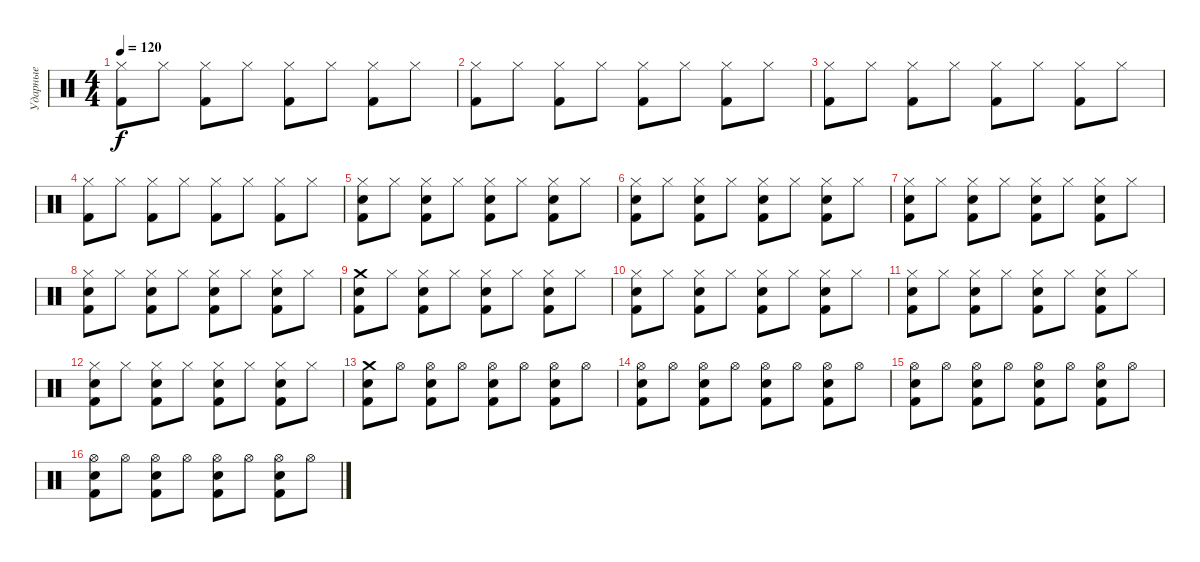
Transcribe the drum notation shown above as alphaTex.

\track ("Ударные" "Ударные") {instrument percussion}
\staff {score}
\articulation defaults
\ts (4 4)
\tempo 120
\clef neutral
\ks c
("Kick (hit) 2" "Hi-Hat (closed)").8{dy f} "Hi-Hat (closed)".8 ("Kick (hit) 2" "Hi-Hat (closed)").8 "Hi-Hat (closed)".8 ("Kick (hit) 2" "Hi-Hat (closed)").8 "Hi-Hat (closed)".8 ("Kick (hit) 2" "Hi-Hat (closed)").8 "Hi-Hat (closed)".8 |
("Kick (hit) 2" "Hi-Hat (closed)").8 "Hi-Hat (closed)".8 ("Kick (hit) 2" "Hi-Hat (closed)").8 "Hi-Hat (closed)".8 ("Kick (hit) 2" "Hi-Hat (closed)").8 "Hi-Hat (closed)".8 ("Kick (hit) 2" "Hi-Hat (closed)").8 "Hi-Hat (closed)".8 |
("Kick (hit) 2" "Hi-Hat (closed)").8 "Hi-Hat (closed)".8 ("Kick (hit) 2" "Hi-Hat (closed)").8 "Hi-Hat (closed)".8 ("Kick (hit) 2" "Hi-Hat (closed)").8 "Hi-Hat (closed)".8 ("Kick (hit) 2" "Hi-Hat (closed)").8 "Hi-Hat (closed)".8 |
("Kick (hit) 2" "Hi-Hat (closed)").8 "Hi-Hat (closed)".8 ("Kick (hit) 2" "Hi-Hat (closed)").8 "Hi-Hat (closed)".8 ("Kick (hit) 2" "Hi-Hat (closed)").8 "Hi-Hat (closed)".8 ("Kick (hit) 2" "Hi-Hat (closed)").8 "Hi-Hat (closed)".8 |
("Kick (hit) 2" "Electric Snare (hit)" "Hi-Hat (closed)").8 "Hi-Hat (closed)".8 ("Kick (hit) 2" "Electric Snare (hit)" "Hi-Hat (closed)").8 "Hi-Hat (closed)".8 ("Kick (hit) 2" "Electric Snare (hit)" "Hi-Hat (closed)").8 "Hi-Hat (closed)".8 ("Kick (hit) 2" "Electric Snare (hit)" "Hi-Hat (closed)").8 "Hi-Hat (closed)".8 |
("Kick (hit) 2" "Electric Snare (hit)" "Hi-Hat (closed)").8 "Hi-Hat (closed)".8 ("Kick (hit) 2" "Electric Snare (hit)" "Hi-Hat (closed)").8 "Hi-Hat (closed)".8 ("Kick (hit) 2" "Electric Snare (hit)" "Hi-Hat (closed)").8 "Hi-Hat (closed)".8 ("Kick (hit) 2" "Electric Snare (hit)" "Hi-Hat (closed)").8 "Hi-Hat (closed)".8 |
("Kick (hit) 2" "Electric Snare (hit)" "Hi-Hat (closed)").8 "Hi-Hat (closed)".8 ("Kick (hit) 2" "Electric Snare (hit)" "Hi-Hat (closed)").8 "Hi-Hat (closed)".8 ("Kick (hit) 2" "Electric Snare (hit)" "Hi-Hat (closed)").8 "Hi-Hat (closed)".8 ("Kick (hit) 2" "Electric Snare (hit)" "Hi-Hat (closed)").8 "Hi-Hat (closed)".8 |
("Kick (hit) 2" "Electric Snare (hit)" "Hi-Hat (closed)").8 "Hi-Hat (closed)".8 ("Kick (hit) 2" "Electric Snare (hit)" "Hi-Hat (closed)").8 "Hi-Hat (closed)".8 ("Kick (hit) 2" "Electric Snare (hit)" "Hi-Hat (closed)").8 "Hi-Hat (closed)".8 ("Kick (hit) 2" "Electric Snare (hit)" "Hi-Hat (closed)").8 "Hi-Hat (closed)".8 |
("Kick (hit) 2" "Electric Snare (hit)" "Crash medium (hit)").8 "Hi-Hat (closed)".8 ("Kick (hit) 2" "Electric Snare (hit)" "Hi-Hat (closed)").8 "Hi-Hat (closed)".8 ("Kick (hit) 2" "Electric Snare (hit)" "Hi-Hat (closed)").8 "Hi-Hat (closed)".8 ("Kick (hit) 2" "Electric Snare (hit)" "Hi-Hat (closed)").8 "Hi-Hat (closed)".8 |
("Kick (hit) 2" "Electric Snare (hit)" "Hi-Hat (closed)").8 "Hi-Hat (closed)".8 ("Kick (hit) 2" "Electric Snare (hit)" "Hi-Hat (closed)").8 "Hi-Hat (closed)".8 ("Kick (hit) 2" "Electric Snare (hit)" "Hi-Hat (closed)").8 "Hi-Hat (closed)".8 ("Kick (hit) 2" "Electric Snare (hit)" "Hi-Hat (closed)").8 "Hi-Hat (closed)".8 |
("Kick (hit) 2" "Electric Snare (hit)" "Hi-Hat (closed)").8 "Hi-Hat (closed)".8 ("Kick (hit) 2" "Electric Snare (hit)" "Hi-Hat (closed)").8 "Hi-Hat (closed)".8 ("Kick (hit) 2" "Electric Snare (hit)" "Hi-Hat (closed)").8 "Hi-Hat (closed)".8 ("Kick (hit) 2" "Electric Snare (hit)" "Hi-Hat (closed)").8 "Hi-Hat (closed)".8 |
("Kick (hit) 2" "Electric Snare (hit)" "Hi-Hat (closed)").8 "Hi-Hat (closed)".8 ("Kick (hit) 2" "Electric Snare (hit)" "Hi-Hat (closed)").8 "Hi-Hat (closed)".8 ("Kick (hit) 2" "Electric Snare (hit)" "Hi-Hat (closed)").8 "Hi-Hat (closed)".8 ("Kick (hit) 2" "Electric Snare (hit)" "Hi-Hat (closed)").8 "Hi-Hat (closed)".8 |
("Kick (hit) 2" "Electric Snare (hit)" "Crash medium (hit)").8 "Hi-Hat (open)".8 ("Kick (hit) 2" "Electric Snare (hit)" "Hi-Hat (open)").8 "Hi-Hat (open)".8 ("Kick (hit) 2" "Electric Snare (hit)" "Hi-Hat (open)").8 "Hi-Hat (open)".8 ("Kick (hit) 2" "Electric Snare (hit)" "Hi-Hat (open)").8 "Hi-Hat (open)".8 |
("Kick (hit) 2" "Electric Snare (hit)" "Hi-Hat (open)").8 "Hi-Hat (open)".8 ("Kick (hit) 2" "Electric Snare (hit)" "Hi-Hat (open)").8 "Hi-Hat (open)".8 ("Kick (hit) 2" "Electric Snare (hit)" "Hi-Hat (open)").8 "Hi-Hat (open)".8 ("Kick (hit) 2" "Electric Snare (hit)" "Hi-Hat (open)").8 "Hi-Hat (open)".8 |
("Kick (hit) 2" "Electric Snare (hit)" "Hi-Hat (open)").8 "Hi-Hat (open)".8 ("Kick (hit) 2" "Electric Snare (hit)" "Hi-Hat (open)").8 "Hi-Hat (open)".8 ("Kick (hit) 2" "Electric Snare (hit)" "Hi-Hat (open)").8 "Hi-Hat (open)".8 ("Kick (hit) 2" "Electric Snare (hit)" "Hi-Hat (open)").8 "Hi-Hat (open)".8 |
("Kick (hit) 2" "Electric Snare (hit)" "Hi-Hat (open)").8 "Hi-Hat (open)".8 ("Kick (hit) 2" "Electric Snare (hit)" "Hi-Hat (open)").8 "Hi-Hat (open)".8 ("Kick (hit) 2" "Electric Snare (hit)" "Hi-Hat (open)").8 "Hi-Hat (open)".8 ("Kick (hit) 2" "Electric Snare (hit)" "Hi-Hat (open)").8 "Hi-Hat (open)".8
